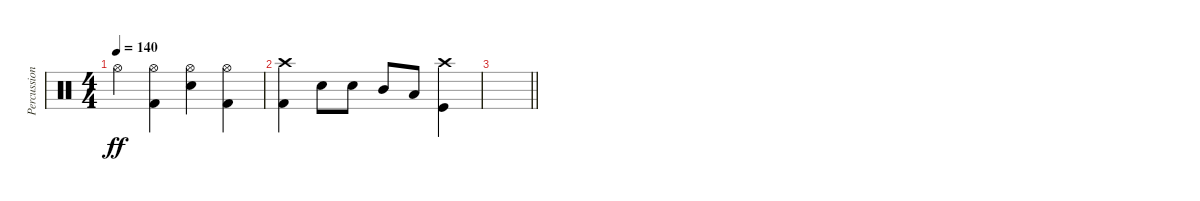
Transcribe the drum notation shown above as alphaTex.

\track ("Percussion" "Percussion") {instrument percussion}
\staff {score}
\articulation defaults
\ts (4 4)
\tempo 140
\clef neutral
\ks c "Hi-Hat (open)".4{dy ff}
("Hi-Hat (open)" "Kick (hit) 2").4 ("Hi-Hat (open)" "Snare (hit) 2").4 ("Hi-Hat (open)" "Kick (hit) 2").4 |
("Crash high (hit)" "Kick (hit) 2").4 "Snare (hit) 2".8 "Snare (hit) 2".8 "Mid Tom (hit)".8 "Low Tom (hit)".8 ("Crash high (hit)" "Kick (hit)").4 |
\barLineRight lightlight
